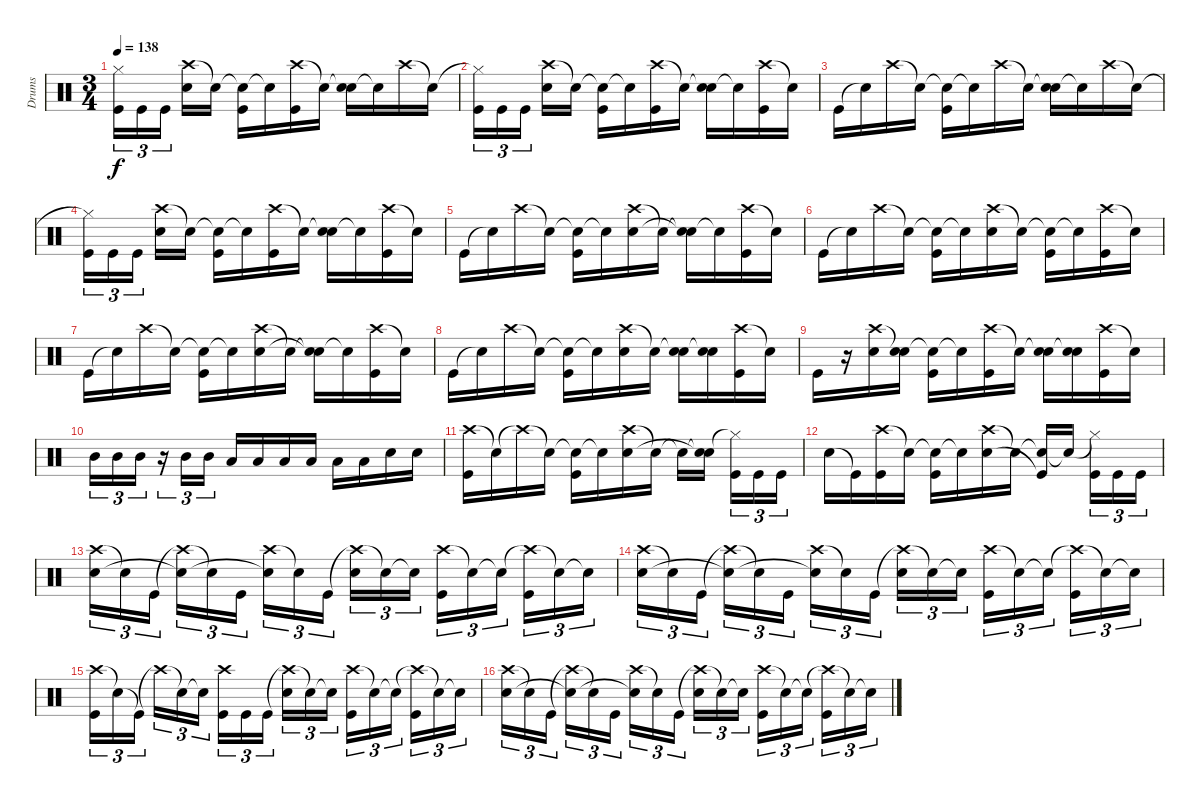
\track ("Drums" "Drums") {instrument percussion}
\staff {score}
\articulation defaults
\ts (3 4)
\tempo 138
\clef neutral
\ks c
("Hi-Hat (closed)"{t} "Kick (hit)").16{tu (3 2) dy f} "Kick (hit)".16{tu (3 2)} "Kick (hit)".16{tu (3 2)} ("Crash high (hit)" "Electric Snare (hit)").16 "Snare (hit)"{t}.16 ("Snare (hit)"{t} "Kick (hit)").16 "Snare (hit)"{t}.16 ("Crash high (hit)" "Kick (hit)").16 "Snare (hit)"{t}.16 ("Snare (hit)"{t} "Electric Snare (hit)").16 "Snare (hit)"{t}.16 "Crash high (hit)".16 "Snare (hit)"{t}.16 |
("Hi-Hat (closed)"{t} "Kick (hit)").16{tu (3 2)} "Kick (hit)".16{tu (3 2)} "Kick (hit)".16{tu (3 2)} ("Crash high (hit)" "Electric Snare (hit)").16 "Snare (hit)"{t}.16 ("Snare (hit)"{t} "Kick (hit)").16 "Snare (hit)"{t}.16 ("Crash high (hit)" "Kick (hit)").16 "Snare (hit)"{t}.16 ("Snare (hit)"{t} "Electric Snare (hit)").16 "Snare (hit)"{t}.16 ("Crash high (hit)" "Kick (hit)").16 "Snare (hit)"{t}.16 |
"Kick (hit)".16 "Snare (hit)"{t}.16 "Crash high (hit)".16 "Snare (hit)"{t}.16 ("Snare (hit)"{t} "Kick (hit)").16 "Snare (hit)"{t}.16 "Crash high (hit)".16 "Snare (hit)"{t}.16 ("Snare (hit)"{t} "Electric Snare (hit)").16 "Snare (hit)"{t}.16 "Crash high (hit)".16 "Snare (hit)"{t}.16 |
("Hi-Hat (closed)"{t} "Kick (hit)").16{tu (3 2)} "Kick (hit)".16{tu (3 2)} "Kick (hit)".16{tu (3 2)} ("Crash high (hit)" "Electric Snare (hit)").16 "Snare (hit)"{t}.16 ("Snare (hit)"{t} "Kick (hit)").16 "Snare (hit)"{t}.16 ("Crash high (hit)" "Kick (hit)").16 "Snare (hit)"{t}.16 ("Snare (hit)"{t} "Electric Snare (hit)").16 "Snare (hit)"{t}.16 ("Crash high (hit)" "Kick (hit)").16 "Snare (hit)"{t}.16 |
"Kick (hit)".16 "Snare (hit)"{t}.16 "Crash high (hit)".16 "Snare (hit)"{t}.16 ("Snare (hit)"{t} "Kick (hit)").16 "Snare (hit)"{t}.16 ("Crash high (hit)" "Electric Snare (hit)").16 "Snare (hit)"{t}.16 ("Snare (hit)"{t} "Electric Snare (hit)"{t}).16 "Snare (hit)"{t}.16 ("Crash high (hit)" "Kick (hit)").16 "Snare (hit)"{t}.16 |
"Kick (hit)".16 "Snare (hit)"{t}.16 "Crash high (hit)".16 "Snare (hit)"{t}.16 ("Snare (hit)"{t} "Kick (hit)").16 "Snare (hit)"{t}.16 ("Crash high (hit)" "Electric Snare (hit)").16 "Snare (hit)"{t}.16 ("Snare (hit)"{t} "Kick (hit)").16 "Snare (hit)"{t}.16 ("Crash high (hit)" "Kick (hit)").16 "Snare (hit)"{t}.16 |
"Kick (hit)".16 "Snare (hit)"{t}.16 "Crash high (hit)".16 "Snare (hit)"{t}.16 ("Snare (hit)"{t} "Kick (hit)").16 "Snare (hit)"{t}.16 ("Crash high (hit)" "Electric Snare (hit)").16 "Snare (hit)"{t}.16 ("Snare (hit)"{t} "Electric Snare (hit)"{t}).16 "Snare (hit)"{t}.16 ("Crash high (hit)" "Kick (hit)").16 "Snare (hit)"{t}.16 |
"Kick (hit)".16 "Snare (hit)"{t}.16 "Crash high (hit)".16 "Snare (hit)"{t}.16 ("Snare (hit)"{t} "Kick (hit)").16 "Snare (hit)"{t}.16 ("Crash high (hit)" "Electric Snare (hit)").16 "Snare (hit)"{t}.16 ("Snare (hit)"{t} "Electric Snare (hit)").16 ("Snare (hit)"{t} "Electric Snare (hit)").16 ("Crash high (hit)" "Kick (hit)").16 "Snare (hit)"{t}.16 |
"Kick (hit)".16 r.16 ("Crash high (hit)" "Electric Snare (hit)").16 ("Snare (hit)"{t} "Electric Snare (hit)").16 ("Snare (hit)"{t} "Kick (hit)").16 "Snare (hit)"{t}.16 ("Crash high (hit)" "Kick (hit)").16 "Snare (hit)"{t}.16 ("Snare (hit)"{t} "Electric Snare (hit)").16 ("Snare (hit)"{t} "Electric Snare (hit)").16 ("Crash high (hit)" "Kick (hit)").16 "Snare (hit)"{t}.16 |
"Mid Tom (hit)".16{tu (3 2)} "Mid Tom (hit)".16{tu (3 2)} "Mid Tom (hit)".16{tu (3 2)} r.16{tu (3 2)} "Mid Tom (hit)".16{tu (3 2)} "Mid Tom (hit)".16{tu (3 2)} "Low Tom (hit)".16 "Low Tom (hit)".16 "Low Tom (hit)".16 "Low Tom (hit)".16 "Low Tom (hit)".16 "Low Tom (hit)".16 "Electric Snare (hit)".16 "Electric Snare (hit)".16 |
("Crash high (hit)" "Kick (hit)").16 "Snare (hit)"{t}.16 "Crash high (hit)"{t}.16 "Snare (hit)"{t}.16 ("Snare (hit)"{t} "Kick (hit)").16 "Snare (hit)"{t}.16 ("Crash high (hit)" "Electric Snare (hit)").16 "Snare (hit)"{t}.16 "Snare (hit)"{t}.16 ("Snare (hit)"{t} "Electric Snare (hit)"{t}).16 ("Hi-Hat (closed)"{t} "Kick (hit)").16{tu (3 2)} "Kick (hit)".16{tu (3 2)} "Kick (hit)".16{tu (3 2)} |
"Electric Snare (hit)".16 "Kick (hit)"{t}.16 ("Crash high (hit)" "Kick (hit)").16 "Snare (hit)"{t}.16 ("Snare (hit)"{t} "Kick (hit)").16 "Snare (hit)"{t}.16 ("Crash high (hit)" "Electric Snare (hit)").16 "Snare (hit)"{t}.16 ("Snare (hit)"{t} "Kick (hit)"{t}).16 "Snare (hit)"{t}.16 ("Hi-Hat (closed)"{t} "Kick (hit)").16{tu (3 2)} "Kick (hit)".16{tu (3 2)} "Kick (hit)".16{tu (3 2)} |
("Crash high (hit)" "Electric Snare (hit)").16{tu (3 2)} "Snare (hit)"{t}.16{tu (3 2)} "Kick (hit)".16{tu (3 2)} ("Crash high (hit)"{t} "Snare (hit)"{t}).16{tu (3 2)} "Snare (hit)"{t}.16{tu (3 2)} "Kick (hit)".16{tu (3 2)} ("Crash high (hit)" "Snare (hit)"{t}).16{tu (3 2)} "Snare (hit)"{t}.16{tu (3 2)} "Kick (hit)".16{tu (3 2)} ("Crash high (hit)"{t} "Electric Snare (hit)").16{tu (3 2)} "Snare (hit)"{t}.16{tu (3 2)} "Snare (hit)"{t}.16{tu (3 2)} ("Crash high (hit)" "Kick (hit)").16{tu (3 2)} "Snare (hit)"{t}.16{tu (3 2)} "Snare (hit)"{t}.16{tu (3 2)} ("Crash high (hit)"{t} "Kick (hit)").16{tu (3 2)} "Snare (hit)"{t}.16{tu (3 2)} "Snare (hit)"{t}.16{tu (3 2)} |
("Crash high (hit)" "Electric Snare (hit)").16{tu (3 2)} "Snare (hit)"{t}.16{tu (3 2)} "Kick (hit)".16{tu (3 2)} ("Crash high (hit)"{t} "Snare (hit)"{t}).16{tu (3 2)} "Snare (hit)"{t}.16{tu (3 2)} "Kick (hit)".16{tu (3 2)} ("Crash high (hit)" "Snare (hit)"{t}).16{tu (3 2)} "Snare (hit)"{t}.16{tu (3 2)} "Kick (hit)".16{tu (3 2)} ("Crash high (hit)"{t} "Electric Snare (hit)").16{tu (3 2)} "Snare (hit)"{t}.16{tu (3 2)} "Snare (hit)"{t}.16{tu (3 2)} ("Crash high (hit)" "Kick (hit)").16{tu (3 2)} "Snare (hit)"{t}.16{tu (3 2)} "Snare (hit)"{t}.16{tu (3 2)} ("Crash high (hit)"{t} "Kick (hit)").16{tu (3 2)} "Snare (hit)"{t}.16{tu (3 2)} "Snare (hit)"{t}.16{tu (3 2)} |
("Crash high (hit)" "Kick (hit)").16{tu (3 2)} "Snare (hit)"{t}.16{tu (3 2)} "Kick (hit)"{t}.16{tu (3 2)} "Crash high (hit)"{t}.16{tu (3 2)} "Snare (hit)"{t}.16{tu (3 2)} "Snare (hit)"{t}.16{tu (3 2)} ("Crash high (hit)" "Kick (hit)").16{tu (3 2)} "Kick (hit)".16{tu (3 2)} "Kick (hit)".16{tu (3 2)} ("Crash high (hit)"{t} "Electric Snare (hit)").16{tu (3 2)} "Snare (hit)"{t}.16{tu (3 2)} "Snare (hit)"{t}.16{tu (3 2)} ("Crash high (hit)" "Kick (hit)").16{tu (3 2)} "Snare (hit)"{t}.16{tu (3 2)} "Snare (hit)"{t}.16{tu (3 2)} ("Crash high (hit)"{t} "Kick (hit)").16{tu (3 2)} "Snare (hit)"{t}.16{tu (3 2)} "Snare (hit)"{t}.16{tu (3 2)} |
("Crash high (hit)" "Electric Snare (hit)").16{tu (3 2)} "Snare (hit)"{t}.16{tu (3 2)} "Kick (hit)".16{tu (3 2)} ("Crash high (hit)"{t} "Snare (hit)"{t}).16{tu (3 2)} "Snare (hit)"{t}.16{tu (3 2)} "Kick (hit)".16{tu (3 2)} ("Crash high (hit)" "Snare (hit)"{t}).16{tu (3 2)} "Snare (hit)"{t}.16{tu (3 2)} "Kick (hit)".16{tu (3 2)} ("Crash high (hit)"{t} "Electric Snare (hit)").16{tu (3 2)} "Snare (hit)"{t}.16{tu (3 2)} "Snare (hit)"{t}.16{tu (3 2)} ("Crash high (hit)" "Kick (hit)").16{tu (3 2)} "Snare (hit)"{t}.16{tu (3 2)} "Snare (hit)"{t}.16{tu (3 2)} ("Crash high (hit)"{t} "Kick (hit)").16{tu (3 2)} "Snare (hit)"{t}.16{tu (3 2)} "Snare (hit)"{t}.16{tu (3 2)}
